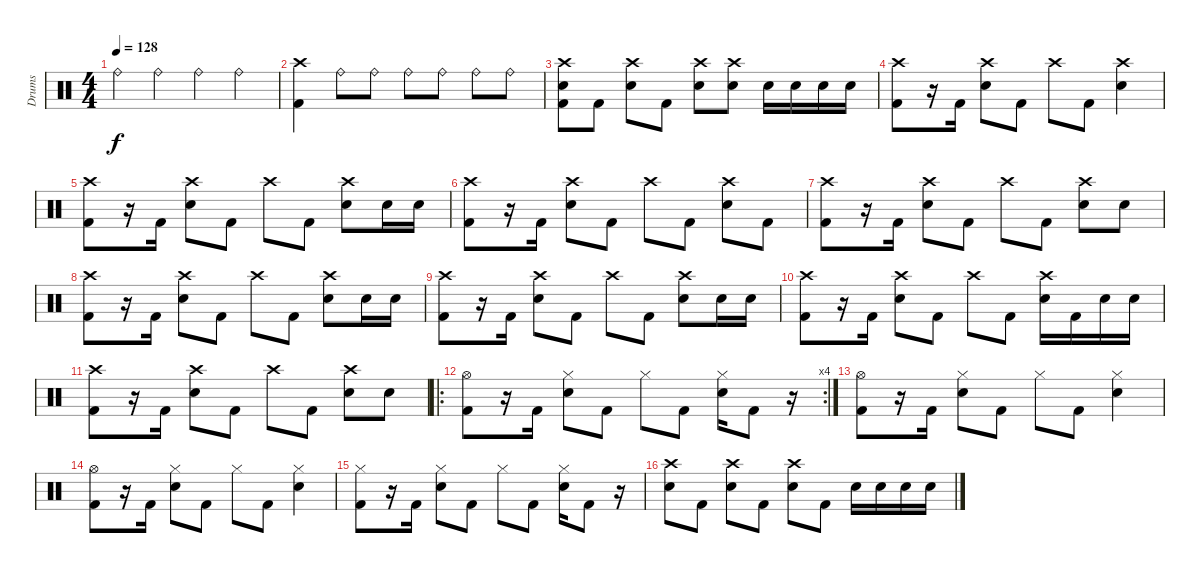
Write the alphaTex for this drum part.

\track ("Drums" "Drums") {instrument percussion}
\staff {score}
\articulation defaults
\ts (4 4)
\tempo 128
\clef neutral
\ks c "Ride (bell)".4{dy f} "Ride (bell)".4 "Ride (bell)".4 "Ride (bell)".4
|
("Crash high (hit)" "Kick (hit) 2").4 "Ride (bell)".8 "Ride (bell)".8 "Ride (bell)".8 "Ride (bell)".8 "Ride (bell)".8 "Ride (bell)".8 |
("Crash high (hit)" "Electric Snare (hit)" "Kick (hit) 2").8 "Kick (hit) 2".8 ("Crash high (hit)" "Electric Snare (hit)").8 "Kick (hit) 2".8 ("Crash high (hit)" "Electric Snare (hit)").8 ("Crash high (hit)" "Electric Snare (hit)").8 "Electric Snare (hit)".16 "Electric Snare (hit)".16 "Electric Snare (hit)".16 "Electric Snare (hit)".16 |
("Crash high (hit)" "Kick (hit) 2").8 r.16 "Kick (hit) 2".16 ("Crash high (hit)" "Electric Snare (hit)").8 "Kick (hit) 2".8 "Crash high (hit)".8 "Kick (hit) 2".8 ("Crash high (hit)" "Electric Snare (hit)").4 |
("Crash high (hit)" "Kick (hit) 2").8 r.16 "Kick (hit) 2".16 ("Crash high (hit)" "Electric Snare (hit)").8 "Kick (hit) 2".8 "Crash high (hit)".8 "Kick (hit) 2".8 ("Crash high (hit)" "Electric Snare (hit)").8 "Electric Snare (hit)".16 "Electric Snare (hit)".16 |
("Crash high (hit)" "Kick (hit) 2").8 r.16 "Kick (hit) 2".16 ("Crash high (hit)" "Electric Snare (hit)").8 "Kick (hit) 2".8 "Crash high (hit)".8 "Kick (hit) 2".8 ("Crash high (hit)" "Electric Snare (hit)").8 "Kick (hit) 2".8 |
("Crash high (hit)" "Kick (hit) 2").8 r.16 "Kick (hit) 2".16 ("Crash high (hit)" "Electric Snare (hit)").8 "Kick (hit) 2".8 "Crash high (hit)".8 "Kick (hit) 2".8 ("Crash high (hit)" "Electric Snare (hit)").8 "Electric Snare (hit)".8 |
("Crash high (hit)" "Kick (hit) 2").8 r.16 "Kick (hit) 2".16 ("Crash high (hit)" "Electric Snare (hit)").8 "Kick (hit) 2".8 "Crash high (hit)".8 "Kick (hit) 2".8 ("Crash high (hit)" "Electric Snare (hit)").8 "Electric Snare (hit)".16 "Electric Snare (hit)".16 |
("Crash high (hit)" "Kick (hit) 2").8 r.16 "Kick (hit) 2".16 ("Crash high (hit)" "Electric Snare (hit)").8 "Kick (hit) 2".8 "Crash high (hit)".8 "Kick (hit) 2".8 ("Crash high (hit)" "Electric Snare (hit)").8 "Electric Snare (hit)".16 "Electric Snare (hit)".16 |
("Crash high (hit)" "Kick (hit) 2").8 r.16 "Kick (hit) 2".16 ("Crash high (hit)" "Electric Snare (hit)").8 "Kick (hit) 2".8 "Crash high (hit)".8 "Kick (hit) 2".8 ("Crash high (hit)" "Electric Snare (hit)").16 "Kick (hit) 2".16 "Electric Snare (hit)".16 "Electric Snare (hit)".16 |
("Crash high (hit)" "Kick (hit) 2").8 r.16 "Kick (hit) 2".16 ("Crash high (hit)" "Electric Snare (hit)").8 "Kick (hit) 2".8 "Crash high (hit)".8 "Kick (hit) 2".8 ("Crash high (hit)" "Electric Snare (hit)").8 "Electric Snare (hit)".8 |
\ro
\rc 4
("Hi-Hat (open)" "Kick (hit) 2").8 r.16 "Kick (hit) 2".16 ("Hi-Hat (closed)" "Electric Snare (hit)").8 "Kick (hit) 2".8 "Hi-Hat (closed)".8 "Kick (hit) 2".8 ("Hi-Hat (closed)" "Electric Snare (hit)").16 "Kick (hit) 2".8 r.16 |
("Hi-Hat (open)" "Kick (hit) 2").8 r.16 "Kick (hit) 2".16 ("Hi-Hat (closed)" "Electric Snare (hit)").8 "Kick (hit) 2".8 "Hi-Hat (closed)".8 "Kick (hit) 2".8 ("Hi-Hat (closed)" "Electric Snare (hit)").4 |
("Hi-Hat (open)" "Kick (hit) 2").8 r.16 "Kick (hit) 2".16 ("Hi-Hat (closed)" "Electric Snare (hit)").8 "Kick (hit) 2".8 "Hi-Hat (closed)".8 "Kick (hit) 2".8 ("Hi-Hat (closed)" "Electric Snare (hit)").4 |
("Hi-Hat (closed)" "Kick (hit) 2").8 r.16 "Kick (hit) 2".16 ("Hi-Hat (closed)" "Electric Snare (hit)").8 "Kick (hit) 2".8 "Hi-Hat (closed)".8 "Kick (hit) 2".8 ("Hi-Hat (closed)" "Electric Snare (hit)").16 "Kick (hit) 2".8 r.16 |
("Crash high (hit)" "Electric Snare (hit)").8 "Kick (hit) 2".8 ("Crash high (hit)" "Electric Snare (hit)").8 "Kick (hit) 2".8 ("Crash high (hit)" "Electric Snare (hit)").8 "Kick (hit) 2".8 "Electric Snare (hit)".16 "Electric Snare (hit)".16 "Electric Snare (hit)".16 "Electric Snare (hit)".16
